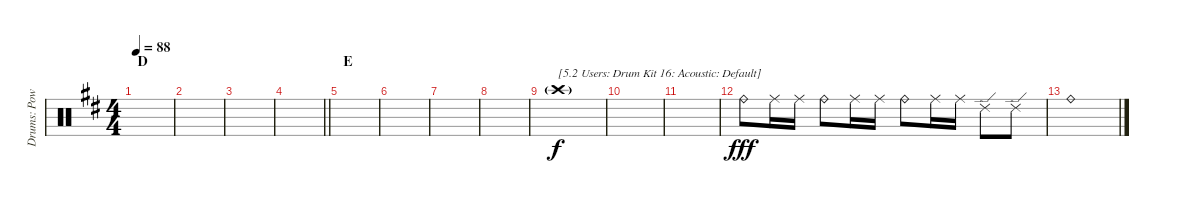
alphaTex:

\track ("Drums: Powell" "Drums: Pow") {instrument percussion}
\staff {score}
\articulation defaults
\ts (4 4)
\section ("" "D")
\tempo 88
\clef neutral
\ks d
|
|
|
\barLineRight lightlight
|
\section ("" "E")
|
|
|
|
"Crash high (hit)"{g}.1{txt "[5.2 Users: Drum Kit 16: Acoustic: Default]"} |
|
|
"Ride (bell)".8{dy fff} "Ride (middle)".16 "Ride (middle)".16 "Ride (bell)".8 "Ride (middle)".16 "Ride (middle)".16 "Ride (bell)".8 "Ride (middle)".16 "Ride (middle)".16 "Ride (edge) 2".8 "Ride (edge) 2".8 |
"Ride (bell)".1
